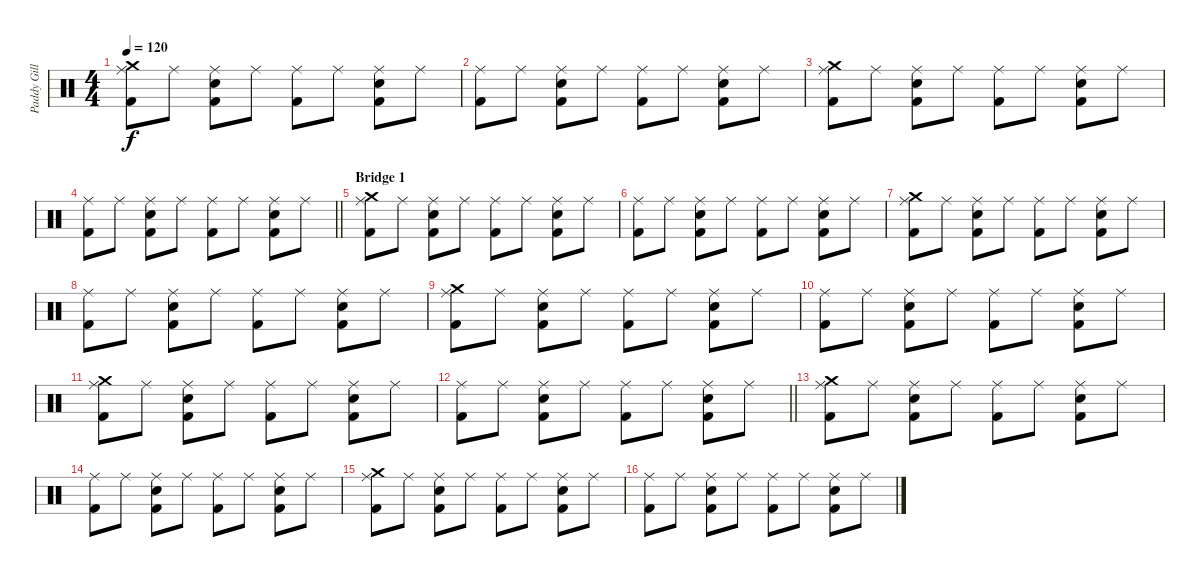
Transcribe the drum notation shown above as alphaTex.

\track ("Paddy Gillespie" "Paddy Gill") {instrument percussion}
\staff {score}
\articulation defaults
\ts (4 4)
\tempo 120
\clef neutral
\ks c
("Kick (hit) 2" "Crash medium (hit)" "Ride (middle)").8{dy f} "Ride (middle)".8 ("Kick (hit) 2" "Ride (middle)" "Snare (hit) 2").8 "Ride (middle)".8 ("Kick (hit) 2" "Ride (middle)").8 "Ride (middle)".8 ("Kick (hit) 2" "Ride (middle)" "Snare (hit) 2").8 "Ride (middle)".8 |
("Kick (hit) 2" "Ride (middle)").8 "Ride (middle)".8 ("Kick (hit) 2" "Ride (middle)" "Snare (hit) 2").8 "Ride (middle)".8 ("Kick (hit) 2" "Ride (middle)").8 "Ride (middle)".8 ("Kick (hit) 2" "Ride (middle)" "Snare (hit) 2").8 "Ride (middle)".8 |
("Kick (hit) 2" "Crash medium (hit)" "Ride (middle)").8 "Ride (middle)".8 ("Kick (hit) 2" "Ride (middle)" "Snare (hit) 2").8 "Ride (middle)".8 ("Kick (hit) 2" "Ride (middle)").8 "Ride (middle)".8 ("Kick (hit) 2" "Ride (middle)" "Snare (hit) 2").8 "Ride (middle)".8 |
\barLineRight lightlight
("Kick (hit) 2" "Ride (middle)").8 "Ride (middle)".8 ("Kick (hit) 2" "Ride (middle)" "Snare (hit) 2").8 "Ride (middle)".8 ("Kick (hit) 2" "Ride (middle)").8 "Ride (middle)".8 ("Kick (hit) 2" "Ride (middle)" "Snare (hit) 2").8 "Ride (middle)".8 |
\section ("" "Bridge 1")
("Kick (hit) 2" "Crash medium (hit)" "Ride (middle)").8 "Ride (middle)".8 ("Kick (hit) 2" "Ride (middle)" "Snare (hit) 2").8 "Ride (middle)".8 ("Kick (hit) 2" "Ride (middle)").8 "Ride (middle)".8 ("Kick (hit) 2" "Ride (middle)" "Snare (hit) 2").8 "Ride (middle)".8 |
("Kick (hit) 2" "Ride (middle)").8 "Ride (middle)".8 ("Kick (hit) 2" "Ride (middle)" "Snare (hit) 2").8 "Ride (middle)".8 ("Kick (hit) 2" "Ride (middle)").8 "Ride (middle)".8 ("Kick (hit) 2" "Ride (middle)" "Snare (hit) 2").8 "Ride (middle)".8 |
("Kick (hit) 2" "Crash medium (hit)" "Ride (middle)").8 "Ride (middle)".8 ("Kick (hit) 2" "Ride (middle)" "Snare (hit) 2").8 "Ride (middle)".8 ("Kick (hit) 2" "Ride (middle)").8 "Ride (middle)".8 ("Kick (hit) 2" "Ride (middle)" "Snare (hit) 2").8 "Ride (middle)".8 |
("Kick (hit) 2" "Ride (middle)").8 "Ride (middle)".8 ("Kick (hit) 2" "Ride (middle)" "Snare (hit) 2").8 "Ride (middle)".8 ("Kick (hit) 2" "Ride (middle)").8 "Ride (middle)".8 ("Kick (hit) 2" "Ride (middle)" "Snare (hit) 2").8 "Ride (middle)".8 |
("Kick (hit) 2" "Crash medium (hit)" "Ride (middle)").8 "Ride (middle)".8 ("Kick (hit) 2" "Ride (middle)" "Snare (hit) 2").8 "Ride (middle)".8 ("Kick (hit) 2" "Ride (middle)").8 "Ride (middle)".8 ("Kick (hit) 2" "Ride (middle)" "Snare (hit) 2").8 "Ride (middle)".8 |
("Kick (hit) 2" "Ride (middle)").8 "Ride (middle)".8 ("Kick (hit) 2" "Ride (middle)" "Snare (hit) 2").8 "Ride (middle)".8 ("Kick (hit) 2" "Ride (middle)").8 "Ride (middle)".8 ("Kick (hit) 2" "Ride (middle)" "Snare (hit) 2").8 "Ride (middle)".8 |
("Kick (hit) 2" "Crash medium (hit)" "Ride (middle)").8 "Ride (middle)".8 ("Kick (hit) 2" "Ride (middle)" "Snare (hit) 2").8 "Ride (middle)".8 ("Kick (hit) 2" "Ride (middle)").8 "Ride (middle)".8 ("Kick (hit) 2" "Ride (middle)" "Snare (hit) 2").8 "Ride (middle)".8 |
\barLineRight lightlight
("Kick (hit) 2" "Ride (middle)").8 "Ride (middle)".8 ("Kick (hit) 2" "Ride (middle)" "Snare (hit) 2").8 "Ride (middle)".8 ("Kick (hit) 2" "Ride (middle)").8 "Ride (middle)".8 ("Kick (hit) 2" "Ride (middle)" "Snare (hit) 2").8 "Ride (middle)".8 |
("Kick (hit) 2" "Crash medium (hit)" "Ride (middle)").8 "Ride (middle)".8 ("Kick (hit) 2" "Ride (middle)" "Snare (hit) 2").8 "Ride (middle)".8 ("Kick (hit) 2" "Ride (middle)").8 "Ride (middle)".8 ("Kick (hit) 2" "Ride (middle)" "Snare (hit) 2").8 "Ride (middle)".8 |
("Kick (hit) 2" "Ride (middle)").8 "Ride (middle)".8 ("Kick (hit) 2" "Ride (middle)" "Snare (hit) 2").8 "Ride (middle)".8 ("Kick (hit) 2" "Ride (middle)").8 "Ride (middle)".8 ("Kick (hit) 2" "Ride (middle)" "Snare (hit) 2").8 "Ride (middle)".8 |
("Kick (hit) 2" "Crash medium (hit)" "Ride (middle)").8 "Ride (middle)".8 ("Kick (hit) 2" "Ride (middle)" "Snare (hit) 2").8 "Ride (middle)".8 ("Kick (hit) 2" "Ride (middle)").8 "Ride (middle)".8 ("Kick (hit) 2" "Ride (middle)" "Snare (hit) 2").8 "Ride (middle)".8 |
("Kick (hit) 2" "Ride (middle)").8 "Ride (middle)".8 ("Kick (hit) 2" "Ride (middle)" "Snare (hit) 2").8 "Ride (middle)".8 ("Kick (hit) 2" "Ride (middle)").8 "Ride (middle)".8 ("Kick (hit) 2" "Ride (middle)" "Snare (hit) 2").8 "Ride (middle)".8
